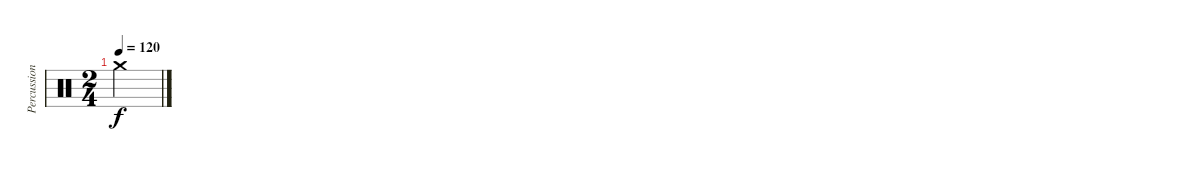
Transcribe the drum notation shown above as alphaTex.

\track ("Percussions" "Percussion") {instrument percussion}
\staff {score}
\articulation defaults
\ts (2 4)
\tempo 120
\clef neutral
\ks c "Crash medium (hit)".2{dy f}
